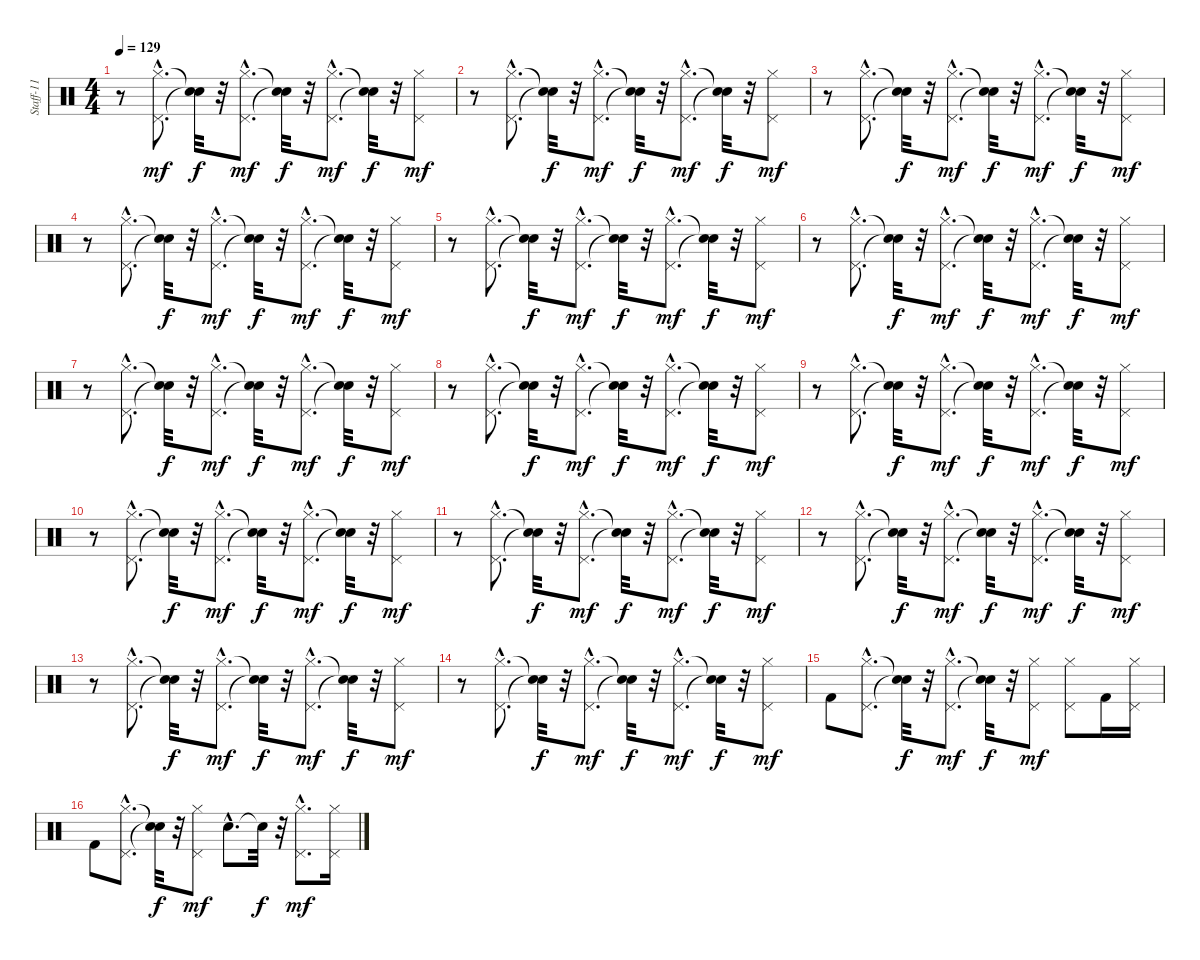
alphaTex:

\track ("Staff-11" "Staff-11") {instrument percussion}
\staff {score}
\articulation defaults
\ts (4 4)
\tempo 129
\clef neutral
\ks c
r.8{dy mf} ("Hi-Hat (closed)"{hac} "Pedal Hi-Hat (hit)"{hac}).8{d} ("Snare (hit)"{t} "Snare (hit)"{t}).32{dy f} r.32 ("Hi-Hat (closed)"{hac} "Pedal Hi-Hat (hit)"{hac}).8{d dy mf} ("Snare (hit)"{t} "Snare (hit)"{t}).32{dy f} r.32 ("Hi-Hat (closed)"{hac} "Pedal Hi-Hat (hit)"{hac}).8{d dy mf} ("Snare (hit)"{t} "Snare (hit)"{t}).32{dy f} r.32 ("Hi-Hat (closed)" "Pedal Hi-Hat (hit)").8{dy mf} |
r.8 ("Hi-Hat (closed)"{hac} "Pedal Hi-Hat (hit)"{hac}).8{d} ("Snare (hit)"{t} "Snare (hit)"{t}).32{dy f} r.32 ("Hi-Hat (closed)"{hac} "Pedal Hi-Hat (hit)"{hac}).8{d dy mf} ("Snare (hit)"{t} "Snare (hit)"{t}).32{dy f} r.32 ("Hi-Hat (closed)"{hac} "Pedal Hi-Hat (hit)"{hac}).8{d dy mf} ("Snare (hit)"{t} "Snare (hit)"{t}).32{dy f} r.32 ("Hi-Hat (closed)" "Pedal Hi-Hat (hit)").8{dy mf} |
r.8 ("Hi-Hat (closed)"{hac} "Pedal Hi-Hat (hit)"{hac}).8{d} ("Snare (hit)"{t} "Snare (hit)"{t}).32{dy f} r.32 ("Hi-Hat (closed)"{hac} "Pedal Hi-Hat (hit)"{hac}).8{d dy mf} ("Snare (hit)"{t} "Snare (hit)"{t}).32{dy f} r.32 ("Hi-Hat (closed)"{hac} "Pedal Hi-Hat (hit)"{hac}).8{d dy mf} ("Snare (hit)"{t} "Snare (hit)"{t}).32{dy f} r.32 ("Hi-Hat (closed)" "Pedal Hi-Hat (hit)").8{dy mf} |
r.8 ("Hi-Hat (closed)"{hac} "Pedal Hi-Hat (hit)"{hac}).8{d} ("Snare (hit)"{t} "Snare (hit)"{t}).32{dy f} r.32 ("Hi-Hat (closed)"{hac} "Pedal Hi-Hat (hit)"{hac}).8{d dy mf} ("Snare (hit)"{t} "Snare (hit)"{t}).32{dy f} r.32 ("Hi-Hat (closed)"{hac} "Pedal Hi-Hat (hit)"{hac}).8{d dy mf} ("Snare (hit)"{t} "Snare (hit)"{t}).32{dy f} r.32 ("Hi-Hat (closed)" "Pedal Hi-Hat (hit)").8{dy mf} |
r.8 ("Hi-Hat (closed)"{hac} "Pedal Hi-Hat (hit)"{hac}).8{d} ("Snare (hit)"{t} "Snare (hit)"{t}).32{dy f} r.32 ("Hi-Hat (closed)"{hac} "Pedal Hi-Hat (hit)"{hac}).8{d dy mf} ("Snare (hit)"{t} "Snare (hit)"{t}).32{dy f} r.32 ("Hi-Hat (closed)"{hac} "Pedal Hi-Hat (hit)"{hac}).8{d dy mf} ("Snare (hit)"{t} "Snare (hit)"{t}).32{dy f} r.32 ("Hi-Hat (closed)" "Pedal Hi-Hat (hit)").8{dy mf} |
r.8 ("Hi-Hat (closed)"{hac} "Pedal Hi-Hat (hit)"{hac}).8{d} ("Snare (hit)"{t} "Snare (hit)"{t}).32{dy f} r.32 ("Hi-Hat (closed)"{hac} "Pedal Hi-Hat (hit)"{hac}).8{d dy mf} ("Snare (hit)"{t} "Snare (hit)"{t}).32{dy f} r.32 ("Hi-Hat (closed)"{hac} "Pedal Hi-Hat (hit)"{hac}).8{d dy mf} ("Snare (hit)"{t} "Snare (hit)"{t}).32{dy f} r.32 ("Hi-Hat (closed)" "Pedal Hi-Hat (hit)").8{dy mf} |
r.8 ("Hi-Hat (closed)"{hac} "Pedal Hi-Hat (hit)"{hac}).8{d} ("Snare (hit)"{t} "Snare (hit)"{t}).32{dy f} r.32 ("Hi-Hat (closed)"{hac} "Pedal Hi-Hat (hit)"{hac}).8{d dy mf} ("Snare (hit)"{t} "Snare (hit)"{t}).32{dy f} r.32 ("Hi-Hat (closed)"{hac} "Pedal Hi-Hat (hit)"{hac}).8{d dy mf} ("Snare (hit)"{t} "Snare (hit)"{t}).32{dy f} r.32 ("Hi-Hat (closed)" "Pedal Hi-Hat (hit)").8{dy mf} |
r.8 ("Hi-Hat (closed)"{hac} "Pedal Hi-Hat (hit)"{hac}).8{d} ("Snare (hit)"{t} "Snare (hit)"{t}).32{dy f} r.32 ("Hi-Hat (closed)"{hac} "Pedal Hi-Hat (hit)"{hac}).8{d dy mf} ("Snare (hit)"{t} "Snare (hit)"{t}).32{dy f} r.32 ("Hi-Hat (closed)"{hac} "Pedal Hi-Hat (hit)"{hac}).8{d dy mf} ("Snare (hit)"{t} "Snare (hit)"{t}).32{dy f} r.32 ("Hi-Hat (closed)" "Pedal Hi-Hat (hit)").8{dy mf} |
r.8 ("Hi-Hat (closed)"{hac} "Pedal Hi-Hat (hit)"{hac}).8{d} ("Snare (hit)"{t} "Snare (hit)"{t}).32{dy f} r.32 ("Hi-Hat (closed)"{hac} "Pedal Hi-Hat (hit)"{hac}).8{d dy mf} ("Snare (hit)"{t} "Snare (hit)"{t}).32{dy f} r.32 ("Hi-Hat (closed)"{hac} "Pedal Hi-Hat (hit)"{hac}).8{d dy mf} ("Snare (hit)"{t} "Snare (hit)"{t}).32{dy f} r.32 ("Hi-Hat (closed)" "Pedal Hi-Hat (hit)").8{dy mf} |
r.8 ("Hi-Hat (closed)"{hac} "Pedal Hi-Hat (hit)"{hac}).8{d} ("Snare (hit)"{t} "Snare (hit)"{t}).32{dy f} r.32 ("Hi-Hat (closed)"{hac} "Pedal Hi-Hat (hit)"{hac}).8{d dy mf} ("Snare (hit)"{t} "Snare (hit)"{t}).32{dy f} r.32 ("Hi-Hat (closed)"{hac} "Pedal Hi-Hat (hit)"{hac}).8{d dy mf} ("Snare (hit)"{t} "Snare (hit)"{t}).32{dy f} r.32 ("Hi-Hat (closed)" "Pedal Hi-Hat (hit)").8{dy mf} |
r.8 ("Hi-Hat (closed)"{hac} "Pedal Hi-Hat (hit)"{hac}).8{d} ("Snare (hit)"{t} "Snare (hit)"{t}).32{dy f} r.32 ("Hi-Hat (closed)"{hac} "Pedal Hi-Hat (hit)"{hac}).8{d dy mf} ("Snare (hit)"{t} "Snare (hit)"{t}).32{dy f} r.32 ("Hi-Hat (closed)"{hac} "Pedal Hi-Hat (hit)"{hac}).8{d dy mf} ("Snare (hit)"{t} "Snare (hit)"{t}).32{dy f} r.32 ("Hi-Hat (closed)" "Pedal Hi-Hat (hit)").8{dy mf} |
r.8 ("Hi-Hat (closed)"{hac} "Pedal Hi-Hat (hit)"{hac}).8{d} ("Snare (hit)"{t} "Snare (hit)"{t}).32{dy f} r.32 ("Hi-Hat (closed)"{hac} "Pedal Hi-Hat (hit)"{hac}).8{d dy mf} ("Snare (hit)"{t} "Snare (hit)"{t}).32{dy f} r.32 ("Hi-Hat (closed)"{hac} "Pedal Hi-Hat (hit)"{hac}).8{d dy mf} ("Snare (hit)"{t} "Snare (hit)"{t}).32{dy f} r.32 ("Hi-Hat (closed)" "Pedal Hi-Hat (hit)").8{dy mf} |
r.8 ("Hi-Hat (closed)"{hac} "Pedal Hi-Hat (hit)"{hac}).8{d} ("Snare (hit)"{t} "Snare (hit)"{t}).32{dy f} r.32 ("Hi-Hat (closed)"{hac} "Pedal Hi-Hat (hit)"{hac}).8{d dy mf} ("Snare (hit)"{t} "Snare (hit)"{t}).32{dy f} r.32 ("Hi-Hat (closed)"{hac} "Pedal Hi-Hat (hit)"{hac}).8{d dy mf} ("Snare (hit)"{t} "Snare (hit)"{t}).32{dy f} r.32 ("Hi-Hat (closed)" "Pedal Hi-Hat (hit)").8{dy mf} |
r.8 ("Hi-Hat (closed)"{hac} "Pedal Hi-Hat (hit)"{hac}).8{d} ("Snare (hit)"{t} "Snare (hit)"{t}).32{dy f} r.32 ("Hi-Hat (closed)"{hac} "Pedal Hi-Hat (hit)"{hac}).8{d dy mf} ("Snare (hit)"{t} "Snare (hit)"{t}).32{dy f} r.32 ("Hi-Hat (closed)"{hac} "Pedal Hi-Hat (hit)"{hac}).8{d dy mf} ("Snare (hit)"{t} "Snare (hit)"{t}).32{dy f} r.32 ("Hi-Hat (closed)" "Pedal Hi-Hat (hit)").8{dy mf} |
"Kick (hit) 2".8 ("Hi-Hat (closed)"{hac} "Pedal Hi-Hat (hit)"{hac}).8{d} ("Snare (hit)"{t} "Snare (hit)"{t}).32{dy f} r.32 ("Hi-Hat (closed)"{hac} "Pedal Hi-Hat (hit)"{hac}).8{d dy mf} ("Snare (hit)"{t} "Snare (hit)"{t}).32{dy f} r.32 ("Hi-Hat (closed)" "Pedal Hi-Hat (hit)").8{dy mf} ("Hi-Hat (closed)" "Pedal Hi-Hat (hit)").8 "Kick (hit) 2".16 ("Hi-Hat (closed)" "Pedal Hi-Hat (hit)").16 |
"Kick (hit) 2".8 ("Hi-Hat (closed)"{hac} "Pedal Hi-Hat (hit)"{hac}).8{d} ("Snare (hit)"{t} "Snare (hit)"{t}).32{dy f} r.32 ("Hi-Hat (closed)" "Pedal Hi-Hat (hit)").8{dy mf} "Hand Clap (hit)"{hac}.8{d} "Snare (hit)"{t}.32{dy f} r.32 ("Hi-Hat (closed)"{hac} "Pedal Hi-Hat (hit)"{hac}).8{d dy mf} ("Hi-Hat (closed)" "Pedal Hi-Hat (hit)").16
